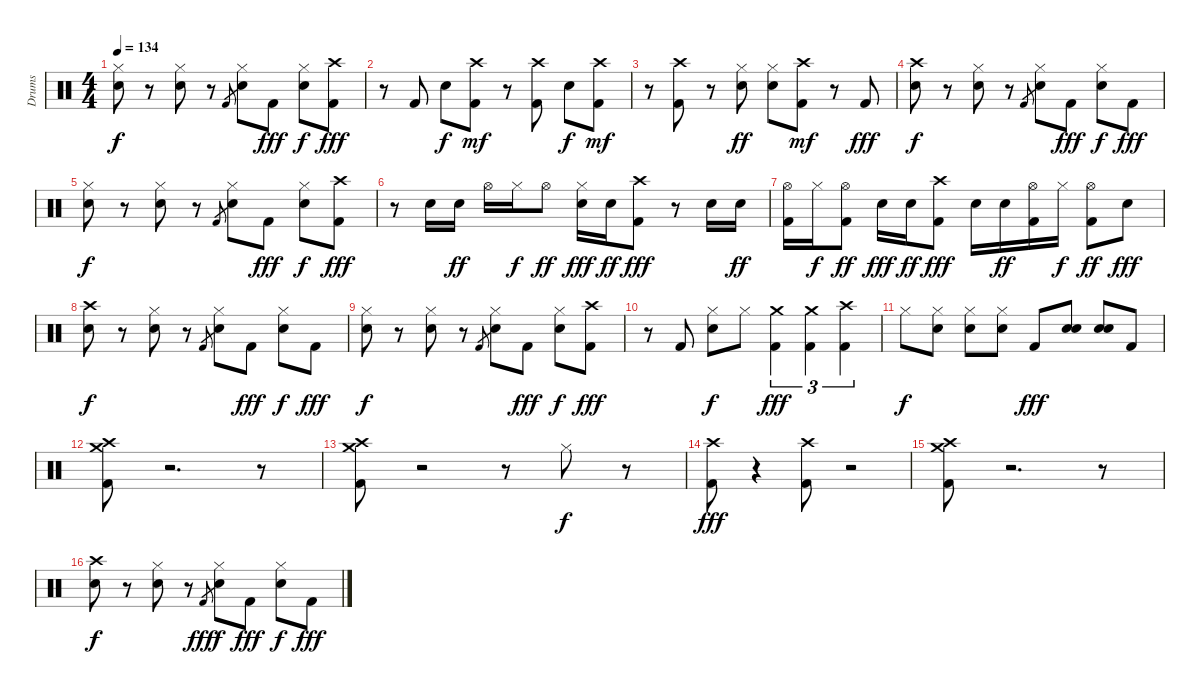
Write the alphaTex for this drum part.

\track ("Drums" "Drums") {instrument percussion}
\staff {score}
\articulation defaults
\ts (4 4)
\tempo 134
\clef neutral
\ks c
("Snare (hit) 2" "Hi-Hat (closed)").8{dy f} r.8 ("Snare (hit) 2" "Hi-Hat (closed)").8 r.8 "Kick (hit) 2".8{gr} ("Snare (hit) 2" "Hi-Hat (closed)").8 "Kick (hit) 2".8{dy fff} ("Snare (hit) 2" "Hi-Hat (closed)").8{dy f} ("Kick (hit) 2" "Crash high (hit)").8{dy fff} |
r.8 "Kick (hit) 2".8 "Snare (hit) 2".8{dy f} ("Kick (hit) 2" "Crash high (hit)").8{dy mf} r.8 ("Kick (hit) 2" "Crash high (hit)").8 "Snare (hit) 2".8{dy f} ("Kick (hit) 2" "Crash high (hit)").8{dy mf} |
r.8 ("Kick (hit) 2" "Crash high (hit)").8 r.8 ("Snare (hit) 2" "Hi-Hat (closed)").8{dy ff} ("Snare (hit) 2" "Hi-Hat (closed)").8 ("Kick (hit) 2" "Crash high (hit)").8{dy mf} r.8 "Kick (hit) 2".8{dy fff} |
("Snare (hit) 2" "Crash high (hit)").8{dy f} r.8 ("Snare (hit) 2" "Hi-Hat (closed)").8 r.8 "Kick (hit) 2".8{gr} ("Snare (hit) 2" "Hi-Hat (closed)").8 "Kick (hit) 2".8{dy fff} ("Snare (hit) 2" "Hi-Hat (closed)").8{dy f} "Kick (hit) 2".8{dy fff} |
("Snare (hit) 2" "Hi-Hat (closed)").8{dy f} r.8 ("Snare (hit) 2" "Hi-Hat (closed)").8 r.8 "Kick (hit) 2".8{gr} ("Snare (hit) 2" "Hi-Hat (closed)").8 "Kick (hit) 2".8{dy fff} ("Snare (hit) 2" "Hi-Hat (closed)").8{dy f} ("Kick (hit) 2" "Crash high (hit)").8{dy fff} |
r.8 "Snare (hit) 2".16 "Snare (hit) 2".16{dy ff} "Hi-Hat (open)".16 "Hi-Hat (closed)".16{dy f} "Hi-Hat (open)".8{dy ff} ("Snare (hit) 2" "Hi-Hat (closed)").16{dy fff} "Snare (hit) 2".16{dy ff} ("Kick (hit) 2" "Crash high (hit)").8{dy fff} r.8 "Snare (hit) 2".16 "Snare (hit) 2".16{dy ff} |
("Kick (hit) 2" "Hi-Hat (open)").16 "Hi-Hat (closed)".16{dy f} ("Kick (hit) 2" "Hi-Hat (open)").8{dy ff} "Snare (hit) 2".16{dy fff} "Snare (hit) 2".16{dy ff} ("Kick (hit) 2" "Crash high (hit)").8{dy fff} "Snare (hit) 2".16 "Snare (hit) 2".16{dy ff} ("Kick (hit) 2" "Hi-Hat (open)").16 "Hi-Hat (closed)".16{dy f} ("Kick (hit) 2" "Hi-Hat (open)").8{dy ff} "Snare (hit) 2".8{dy fff} |
("Snare (hit) 2" "Crash high (hit)").8{dy f} r.8 ("Snare (hit) 2" "Hi-Hat (closed)").8 r.8 "Kick (hit) 2".8{gr} ("Snare (hit) 2" "Hi-Hat (closed)").8 "Kick (hit) 2".8{dy fff} ("Snare (hit) 2" "Hi-Hat (closed)").8{dy f} "Kick (hit) 2".8{dy fff} |
("Snare (hit) 2" "Hi-Hat (closed)").8{dy f} r.8 ("Snare (hit) 2" "Hi-Hat (closed)").8 r.8 "Kick (hit) 2".8{gr} ("Snare (hit) 2" "Hi-Hat (closed)").8 "Kick (hit) 2".8{dy fff} ("Snare (hit) 2" "Hi-Hat (closed)").8{dy f} ("Kick (hit) 2" "Crash high (hit)").8{dy fff} |
r.8 "Kick (hit) 2".8 ("Snare (hit) 2" "Hi-Hat (closed)").8{dy f} "Hi-Hat (closed)".8 ("Kick (hit) 2" "Crash medium (hit)").4{tu (3 2) dy fff} ("Kick (hit) 2" "Crash medium (hit)").4{tu (3 2)} ("Kick (hit) 2" "Crash high (hit)").4{tu (3 2)} |
"Hi-Hat (closed)".8{dy f} ("Snare (hit) 2" "Hi-Hat (closed)").8 ("Snare (hit) 2" "Hi-Hat (closed)").8 ("Snare (hit) 2" "Hi-Hat (closed)").8 "Kick (hit) 2".8{dy fff} ("Snare (hit) 2" "Snare (hit) 2").8 ("Snare (hit) 2" "Snare (hit) 2").8 "Kick (hit) 2".8 |
("Kick (hit) 2" "Crash high (hit)" "Crash medium (hit)").8 r.2{d} r.8 |
("Kick (hit) 2" "Crash high (hit)" "Crash medium (hit)").8 r.2 r.8 "Hi-Hat (closed)".8{dy f} r.8 |
("Kick (hit) 2" "Crash high (hit)").8{dy fff} r.4 ("Kick (hit) 2" "Crash high (hit)").8 r.2 |
("Kick (hit) 2" "Crash high (hit)" "Crash medium (hit)").8 r.2{d} r.8 |
("Snare (hit) 2" "Crash high (hit)").8{dy f} r.8 ("Snare (hit) 2" "Hi-Hat (closed)").8 r.8 "Kick (hit) 2".8{gr dy fff} ("Snare (hit) 2" "Hi-Hat (closed)").8{dy f} "Kick (hit) 2".8{dy fff} ("Snare (hit) 2" "Hi-Hat (closed)").8{dy f} "Kick (hit) 2".8{dy fff}
